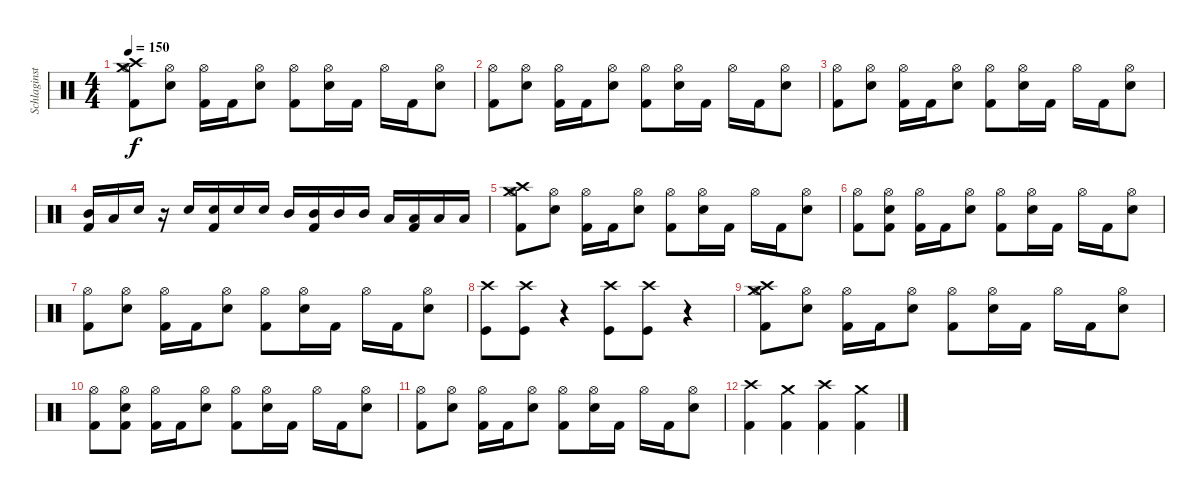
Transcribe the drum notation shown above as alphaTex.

\track ("Schlaginstrumente - Auswahl" "Schlaginst") {instrument percussion}
\staff {score}
\articulation defaults
\ts (4 4)
\tempo 150
\clef neutral
\ks c
("Crash high (hit)" "Crash medium (hit)" "Hi-Hat (open)" "Kick (hit) 2").8{dy f} ("Electric Snare (hit)" "Hi-Hat (open)").8 ("Hi-Hat (open)" "Kick (hit) 2").16 "Kick (hit) 2".16 ("Hi-Hat (open)" "Electric Snare (hit)").8 ("Hi-Hat (open)" "Kick (hit) 2").8 ("Hi-Hat (open)" "Electric Snare (hit)").16 "Kick (hit) 2".16 "Hi-Hat (open)".16 "Kick (hit) 2".16 ("Hi-Hat (open)" "Electric Snare (hit)").8 |
("Hi-Hat (open)" "Kick (hit) 2").8 ("Electric Snare (hit)" "Hi-Hat (open)").8 ("Hi-Hat (open)" "Kick (hit) 2").16 "Kick (hit) 2".16 ("Hi-Hat (open)" "Electric Snare (hit)").8 ("Hi-Hat (open)" "Kick (hit) 2").8 ("Hi-Hat (open)" "Electric Snare (hit)").16 "Kick (hit) 2".16 "Hi-Hat (open)".16 "Kick (hit) 2".16 ("Hi-Hat (open)" "Electric Snare (hit)").8 |
("Hi-Hat (open)" "Kick (hit) 2").8 ("Electric Snare (hit)" "Hi-Hat (open)").8 ("Hi-Hat (open)" "Kick (hit) 2").16 "Kick (hit) 2".16 ("Hi-Hat (open)" "Electric Snare (hit)").8 ("Hi-Hat (open)" "Kick (hit) 2").8 ("Hi-Hat (open)" "Electric Snare (hit)").16 "Kick (hit) 2".16 "Hi-Hat (open)".16 "Kick (hit) 2".16 ("Hi-Hat (open)" "Electric Snare (hit)").8 |
("Mid Tom (hit)" "Kick (hit) 2").16 "Low Tom (hit)".16 "Electric Snare (hit)".16 r.16 "Electric Snare (hit)".16 ("Electric Snare (hit)" "Kick (hit) 2").16 "Electric Snare (hit)".16 "Electric Snare (hit)".16 "Mid Tom (hit)".16 ("Mid Tom (hit)" "Kick (hit) 2").16 "Mid Tom (hit)".16 "Mid Tom (hit)".16 "Low Tom (hit)".16 ("Low Tom (hit)" "Kick (hit) 2").16 "Low Tom (hit)".16 "Low Tom (hit)".16 |
("Crash high (hit)" "Crash medium (hit)" "Hi-Hat (open)" "Kick (hit) 2").8 ("Electric Snare (hit)" "Hi-Hat (open)").8 ("Hi-Hat (open)" "Kick (hit) 2").16 "Kick (hit) 2".16 ("Hi-Hat (open)" "Electric Snare (hit)").8 ("Hi-Hat (open)" "Kick (hit) 2").8 ("Hi-Hat (open)" "Electric Snare (hit)").16 "Kick (hit) 2".16 "Hi-Hat (open)".16 "Kick (hit) 2".16 ("Hi-Hat (open)" "Electric Snare (hit)").8 |
("Hi-Hat (open)" "Kick (hit) 2").8 ("Electric Snare (hit)" "Hi-Hat (open)" "Kick (hit) 2").8 ("Hi-Hat (open)" "Kick (hit) 2").16 "Kick (hit) 2".16 ("Hi-Hat (open)" "Electric Snare (hit)").8 ("Hi-Hat (open)" "Kick (hit) 2").8 ("Hi-Hat (open)" "Electric Snare (hit)").16 "Kick (hit) 2".16 "Hi-Hat (open)".16 "Kick (hit) 2".16 ("Hi-Hat (open)" "Electric Snare (hit)").8 |
("Hi-Hat (open)" "Kick (hit) 2").8 ("Electric Snare (hit)" "Hi-Hat (open)").8 ("Hi-Hat (open)" "Kick (hit) 2").16 "Kick (hit) 2".16 ("Hi-Hat (open)" "Electric Snare (hit)").8 ("Hi-Hat (open)" "Kick (hit) 2").8 ("Hi-Hat (open)" "Electric Snare (hit)").16 "Kick (hit) 2".16 "Hi-Hat (open)".16 "Kick (hit) 2".16 ("Hi-Hat (open)" "Electric Snare (hit)").8 |
("Crash high (hit)" "Kick (hit)").8 ("Crash high (hit)" "Kick (hit)").8 r.4 ("Crash high (hit)" "Kick (hit)").8 ("Crash high (hit)" "Kick (hit)").8 r.4 |
("Crash high (hit)" "Crash medium (hit)" "Hi-Hat (open)" "Kick (hit) 2").8 ("Electric Snare (hit)" "Hi-Hat (open)").8 ("Hi-Hat (open)" "Kick (hit) 2").16 "Kick (hit) 2".16 ("Hi-Hat (open)" "Electric Snare (hit)").8 ("Hi-Hat (open)" "Kick (hit) 2").8 ("Hi-Hat (open)" "Electric Snare (hit)").16 "Kick (hit) 2".16 "Hi-Hat (open)".16 "Kick (hit) 2".16 ("Hi-Hat (open)" "Electric Snare (hit)").8 |
("Hi-Hat (open)" "Kick (hit) 2").8 ("Electric Snare (hit)" "Hi-Hat (open)" "Kick (hit) 2").8 ("Hi-Hat (open)" "Kick (hit) 2").16 "Kick (hit) 2".16 ("Hi-Hat (open)" "Electric Snare (hit)").8 ("Hi-Hat (open)" "Kick (hit) 2").8 ("Hi-Hat (open)" "Electric Snare (hit)").16 "Kick (hit) 2".16 "Hi-Hat (open)".16 "Kick (hit) 2".16 ("Hi-Hat (open)" "Electric Snare (hit)").8 |
("Hi-Hat (open)" "Kick (hit) 2").8 ("Electric Snare (hit)" "Hi-Hat (open)").8 ("Hi-Hat (open)" "Kick (hit) 2").16 "Kick (hit) 2".16 ("Hi-Hat (open)" "Electric Snare (hit)").8 ("Hi-Hat (open)" "Kick (hit) 2").8 ("Hi-Hat (open)" "Electric Snare (hit)").16 "Kick (hit) 2".16 "Hi-Hat (open)".16 "Kick (hit) 2".16 ("Hi-Hat (open)" "Electric Snare (hit)").8 |
("Crash high (hit)" "Kick (hit) 2").4 ("Crash medium (hit)" "Kick (hit) 2").4 ("Crash high (hit)" "Kick (hit) 2").4 ("Crash medium (hit)" "Kick (hit) 2").4
